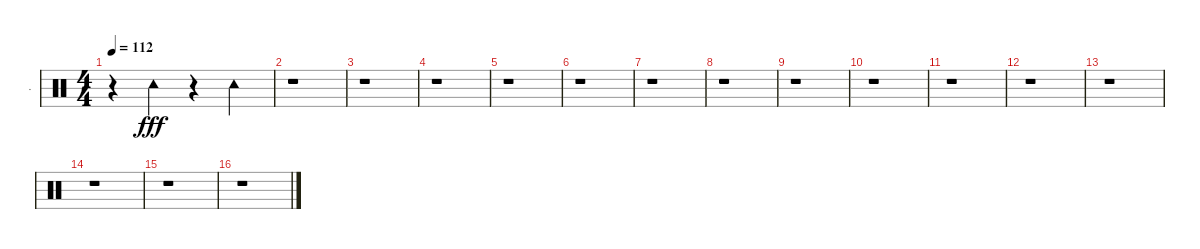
\track ("." ".") {instrument percussion}
\staff {score}
\articulation defaults
\ts (4 4)
\tempo 112
\clef neutral
\ks c
r.4{dy fff} "Tambourine (hit)".4 r.4 "Tambourine (hit)".4 |
r.1 |
r.1 |
r.1 |
r.1 |
r.1 |
r.1 |
r.1 |
r.1 |
r.1 |
r.1 |
r.1 |
r.1 |
r.1 |
r.1 |
r.1
